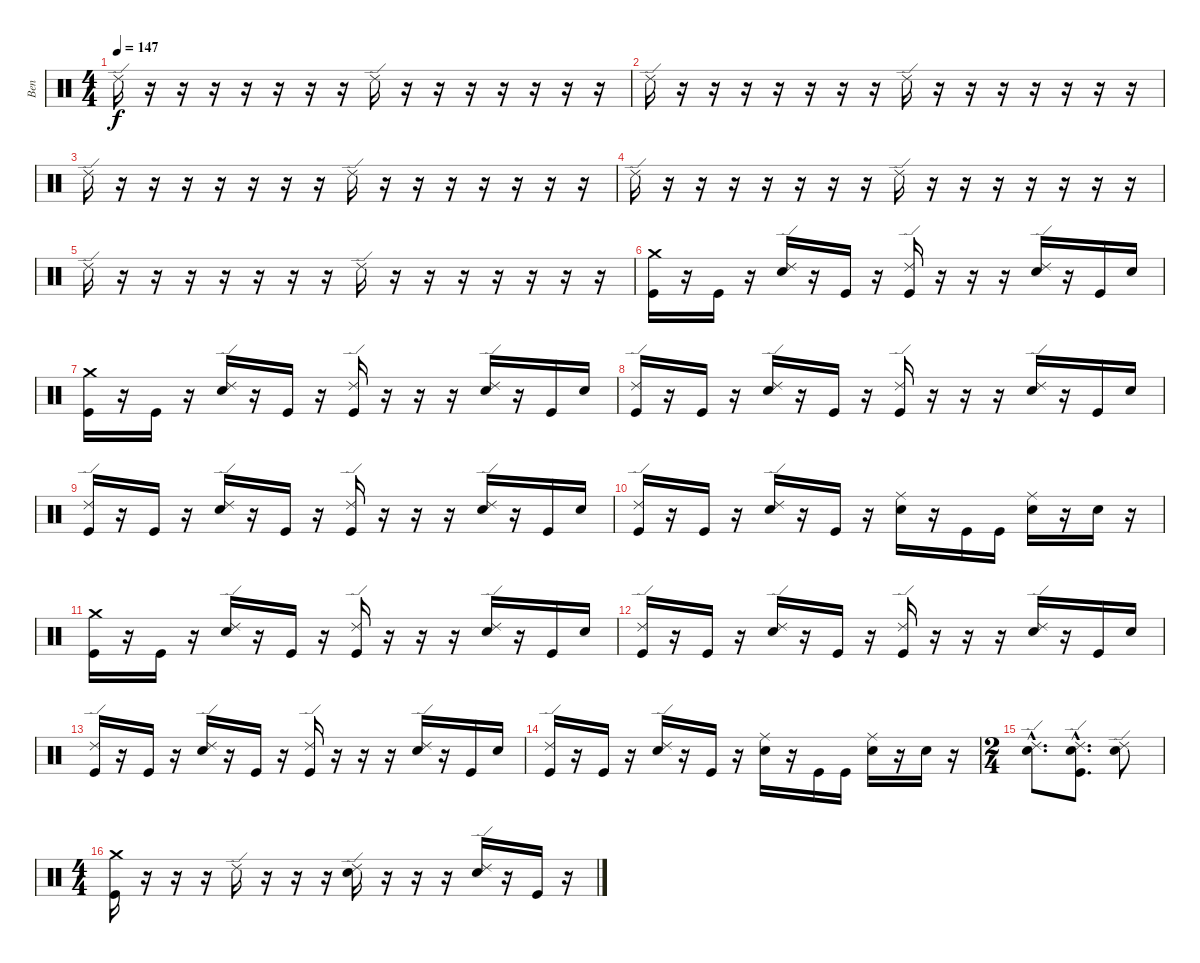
\track ("Ben" "Ben") {instrument percussion}
\staff {score}
\articulation defaults
\ts (4 4)
\tempo 147
\clef neutral
\ks c "Ride (edge) 2".16{dy f}
r.16 r.16 r.16 r.16 r.16 r.16 r.16 "Ride (edge) 2".16 r.16 r.16 r.16 r.16 r.16 r.16 r.16 |
"Ride (edge) 2".16 r.16 r.16 r.16 r.16 r.16 r.16 r.16 "Ride (edge) 2".16 r.16 r.16 r.16 r.16 r.16 r.16 r.16 |
"Ride (edge) 2".16 r.16 r.16 r.16 r.16 r.16 r.16 r.16 "Ride (edge) 2".16 r.16 r.16 r.16 r.16 r.16 r.16 r.16 |
"Ride (edge) 2".16 r.16 r.16 r.16 r.16 r.16 r.16 r.16 "Ride (edge) 2".16 r.16 r.16 r.16 r.16 r.16 r.16 r.16 |
"Ride (edge) 2".16 r.16 r.16 r.16 r.16 r.16 r.16 r.16 "Ride (edge) 2".16 r.16 r.16 r.16 r.16 r.16 r.16 r.16 |
("Crash medium (hit)" "Kick (hit)").16 r.16 "Kick (hit)".16 r.16 ("Ride (edge) 2" "Electric Snare (hit)").16 r.16 "Kick (hit)".16 r.16 ("Ride (edge) 2" "Kick (hit)").16 r.16 r.16 r.16 ("Ride (edge) 2" "Electric Snare (hit)").16 r.16 "Kick (hit)".16 "Electric Snare (hit)".16 |
("Crash medium (hit)" "Kick (hit)").16 r.16 "Kick (hit)".16 r.16 ("Ride (edge) 2" "Electric Snare (hit)").16 r.16 "Kick (hit)".16 r.16 ("Ride (edge) 2" "Kick (hit)").16 r.16 r.16 r.16 ("Ride (edge) 2" "Electric Snare (hit)").16 r.16 "Kick (hit)".16 "Electric Snare (hit)".16 |
("Ride (edge) 2" "Kick (hit)").16 r.16 "Kick (hit)".16 r.16 ("Ride (edge) 2" "Electric Snare (hit)").16 r.16 "Kick (hit)".16 r.16 ("Ride (edge) 2" "Kick (hit)").16 r.16 r.16 r.16 ("Ride (edge) 2" "Electric Snare (hit)").16 r.16 "Kick (hit)".16 "Electric Snare (hit)".16 |
("Ride (edge) 2" "Kick (hit)").16 r.16 "Kick (hit)".16 r.16 ("Ride (edge) 2" "Electric Snare (hit)").16 r.16 "Kick (hit)".16 r.16 ("Ride (edge) 2" "Kick (hit)").16 r.16 r.16 r.16 ("Ride (edge) 2" "Electric Snare (hit)").16 r.16 "Kick (hit)".16 "Electric Snare (hit)".16 |
("Ride (edge) 2" "Kick (hit)").16 r.16 "Kick (hit)".16 r.16 ("Ride (edge) 2" "Electric Snare (hit)").16 r.16 "Kick (hit)".16 r.16 ("Ride (middle)" "Electric Snare (hit)").16 r.16 "Kick (hit)".16 "Kick (hit)".16 ("Ride (middle)" "Electric Snare (hit)").16 r.16 "Electric Snare (hit)".16 r.16 |
("Crash medium (hit)" "Kick (hit)").16 r.16 "Kick (hit)".16 r.16 ("Ride (edge) 2" "Electric Snare (hit)").16 r.16 "Kick (hit)".16 r.16 ("Ride (edge) 2" "Kick (hit)").16 r.16 r.16 r.16 ("Ride (edge) 2" "Electric Snare (hit)").16 r.16 "Kick (hit)".16 "Electric Snare (hit)".16 |
("Ride (edge) 2" "Kick (hit)").16 r.16 "Kick (hit)".16 r.16 ("Ride (edge) 2" "Electric Snare (hit)").16 r.16 "Kick (hit)".16 r.16 ("Ride (edge) 2" "Kick (hit)").16 r.16 r.16 r.16 ("Ride (edge) 2" "Electric Snare (hit)").16 r.16 "Kick (hit)".16 "Electric Snare (hit)".16 |
("Ride (edge) 2" "Kick (hit)").16 r.16 "Kick (hit)".16 r.16 ("Ride (edge) 2" "Electric Snare (hit)").16 r.16 "Kick (hit)".16 r.16 ("Ride (edge) 2" "Kick (hit)").16 r.16 r.16 r.16 ("Ride (edge) 2" "Electric Snare (hit)").16 r.16 "Kick (hit)".16 "Electric Snare (hit)".16 |
("Ride (edge) 2" "Kick (hit)").16 r.16 "Kick (hit)".16 r.16 ("Ride (edge) 2" "Electric Snare (hit)").16 r.16 "Kick (hit)".16 r.16 ("Ride (middle)" "Electric Snare (hit)").16 r.16 "Kick (hit)".16 "Kick (hit)".16 ("Ride (middle)" "Electric Snare (hit)").16 r.16 "Electric Snare (hit)".16 r.16 |
\ts (2 4)
("Ride (edge) 2"{hac} "Electric Snare (hit)"{hac}).8{d} ("Ride (edge) 2"{hac} "Electric Snare (hit)"{hac} "Kick (hit)"{hac}).8{d} ("Ride (edge) 2" "Electric Snare (hit)").8 |
\ts (4 4)
("Crash medium (hit)" "Kick (hit)").16 r.16 r.16 r.16 "Ride (edge) 2".16 r.16 r.16 r.16 ("Ride (edge) 2" "Electric Snare (hit)").16 r.16 r.16 r.16 ("Ride (edge) 2" "Electric Snare (hit)").16 r.16 "Kick (hit)".16 r.16
